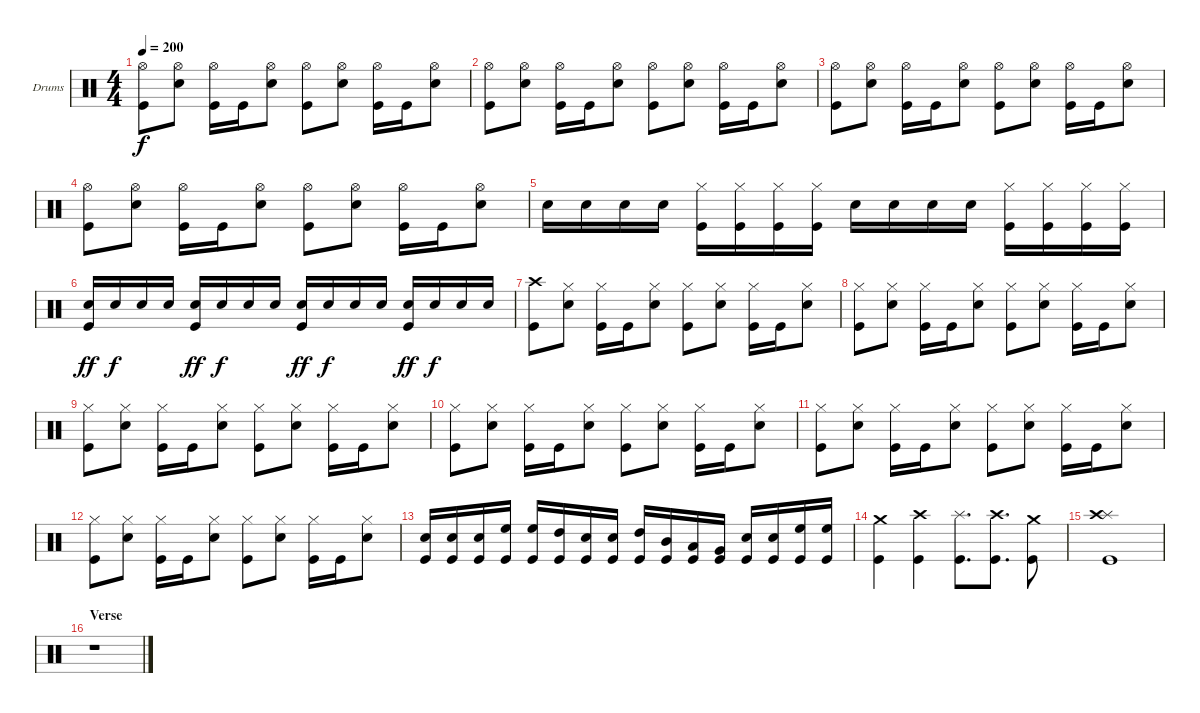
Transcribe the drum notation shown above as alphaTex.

\bracketExtendMode groupsimilarinstruments
\firstSystemTrackNameOrientation horizontal
\otherSystemsTrackNameOrientation horizontal
\track ("Drumkit" "Drums") {instrument percussion}
\staff {score}
\articulation defaults
\ts (4 4)
\tempo 200
\clef neutral
\ks aminor
("Kick (hit)" "Hi-Hat (open)").8{dy f} ("Snare (hit) 2" "Hi-Hat (open)").8 ("Kick (hit)" "Hi-Hat (open)").16 "Kick (hit)".16 ("Snare (hit) 2" "Hi-Hat (open)").8 ("Kick (hit)" "Hi-Hat (open)").8 ("Snare (hit) 2" "Hi-Hat (open)").8 ("Kick (hit)" "Hi-Hat (open)").16 "Kick (hit)".16 ("Snare (hit) 2" "Hi-Hat (open)").8 |
("Kick (hit)" "Hi-Hat (open)").8 ("Snare (hit) 2" "Hi-Hat (open)").8 ("Kick (hit)" "Hi-Hat (open)").16 "Kick (hit)".16 ("Snare (hit) 2" "Hi-Hat (open)").8 ("Kick (hit)" "Hi-Hat (open)").8 ("Snare (hit) 2" "Hi-Hat (open)").8 ("Kick (hit)" "Hi-Hat (open)").16 "Kick (hit)".16 ("Snare (hit) 2" "Hi-Hat (open)").8 |
("Kick (hit)" "Hi-Hat (open)").8 ("Snare (hit) 2" "Hi-Hat (open)").8 ("Kick (hit)" "Hi-Hat (open)").16 "Kick (hit)".16 ("Snare (hit) 2" "Hi-Hat (open)").8 ("Kick (hit)" "Hi-Hat (open)").8 ("Snare (hit) 2" "Hi-Hat (open)").8 ("Kick (hit)" "Hi-Hat (open)").16 "Kick (hit)".16 ("Snare (hit) 2" "Hi-Hat (open)").8 |
("Kick (hit)" "Hi-Hat (open)").8 ("Snare (hit) 2" "Hi-Hat (open)").8 ("Kick (hit)" "Hi-Hat (open)").16 "Kick (hit)".16 ("Snare (hit) 2" "Hi-Hat (open)").8 ("Kick (hit)" "Hi-Hat (open)").8 ("Snare (hit) 2" "Hi-Hat (open)").8 ("Kick (hit)" "Hi-Hat (open)").16 "Kick (hit)".16 ("Snare (hit) 2" "Hi-Hat (open)").8 |
"Snare (hit) 2".16 "Snare (hit) 2".16 "Snare (hit) 2".16 "Snare (hit) 2".16 ("Kick (hit)" "Hi-Hat (closed)").16 ("Kick (hit)" "Hi-Hat (closed)").16 ("Kick (hit)" "Hi-Hat (closed)").16 ("Kick (hit)" "Hi-Hat (closed)").16 "Snare (hit) 2".16 "Snare (hit) 2".16 "Snare (hit) 2".16 "Snare (hit) 2".16 ("Kick (hit)" "Hi-Hat (closed)").16 ("Kick (hit)" "Hi-Hat (closed)").16 ("Kick (hit)" "Hi-Hat (closed)").16 ("Kick (hit)" "Hi-Hat (closed)").16 |
("Kick (hit)" "Snare (hit) 2").16{dy ff} "Snare (hit) 2".16{dy f} "Snare (hit) 2".16 "Snare (hit) 2".16 ("Kick (hit)" "Snare (hit) 2").16{dy ff} "Snare (hit) 2".16{dy f} "Snare (hit) 2".16 "Snare (hit) 2".16 ("Kick (hit)" "Snare (hit) 2").16{dy ff} "Snare (hit) 2".16{dy f} "Snare (hit) 2".16 "Snare (hit) 2".16 ("Kick (hit)" "Snare (hit) 2").16{dy ff} "Snare (hit) 2".16{dy f} "Snare (hit) 2".16 "Snare (hit) 2".16 |
("Kick (hit)" "Crash high (hit)").8 ("Snare (hit) 2" "Hi-Hat (closed)").8 ("Kick (hit)" "Hi-Hat (closed)").16 "Kick (hit)".16 ("Snare (hit) 2" "Hi-Hat (closed)").8 ("Kick (hit)" "Hi-Hat (closed)").8 ("Snare (hit) 2" "Hi-Hat (closed)").8 ("Kick (hit)" "Hi-Hat (closed)").16 "Kick (hit)".16 ("Snare (hit) 2" "Hi-Hat (closed)").8 |
("Kick (hit)" "Hi-Hat (closed)").8 ("Snare (hit) 2" "Hi-Hat (closed)").8 ("Kick (hit)" "Hi-Hat (closed)").16 "Kick (hit)".16 ("Snare (hit) 2" "Hi-Hat (closed)").8 ("Kick (hit)" "Hi-Hat (closed)").8 ("Snare (hit) 2" "Hi-Hat (closed)").8 ("Kick (hit)" "Hi-Hat (closed)").16 "Kick (hit)".16 ("Snare (hit) 2" "Hi-Hat (closed)").8 |
("Kick (hit)" "Hi-Hat (closed)").8 ("Snare (hit) 2" "Hi-Hat (closed)").8 ("Kick (hit)" "Hi-Hat (closed)").16 "Kick (hit)".16 ("Snare (hit) 2" "Hi-Hat (closed)").8 ("Kick (hit)" "Hi-Hat (closed)").8 ("Snare (hit) 2" "Hi-Hat (closed)").8 ("Kick (hit)" "Hi-Hat (closed)").16 "Kick (hit)".16 ("Snare (hit) 2" "Hi-Hat (closed)").8 |
("Kick (hit)" "Hi-Hat (closed)").8 ("Snare (hit) 2" "Hi-Hat (closed)").8 ("Kick (hit)" "Hi-Hat (closed)").16 "Kick (hit)".16 ("Snare (hit) 2" "Hi-Hat (closed)").8 ("Kick (hit)" "Hi-Hat (closed)").8 ("Snare (hit) 2" "Hi-Hat (closed)").8 ("Kick (hit)" "Hi-Hat (closed)").16 "Kick (hit)".16 ("Snare (hit) 2" "Hi-Hat (closed)").8 |
("Kick (hit)" "Hi-Hat (closed)").8 ("Snare (hit) 2" "Hi-Hat (closed)").8 ("Kick (hit)" "Hi-Hat (closed)").16 "Kick (hit)".16 ("Snare (hit) 2" "Hi-Hat (closed)").8 ("Kick (hit)" "Hi-Hat (closed)").8 ("Snare (hit) 2" "Hi-Hat (closed)").8 ("Kick (hit)" "Hi-Hat (closed)").16 "Kick (hit)".16 ("Snare (hit) 2" "Hi-Hat (closed)").8 |
("Kick (hit)" "Hi-Hat (closed)").8 ("Snare (hit) 2" "Hi-Hat (closed)").8 ("Kick (hit)" "Hi-Hat (closed)").16 "Kick (hit)".16 ("Snare (hit) 2" "Hi-Hat (closed)").8 ("Kick (hit)" "Hi-Hat (closed)").8 ("Snare (hit) 2" "Hi-Hat (closed)").8 ("Kick (hit)" "Hi-Hat (closed)").16 "Kick (hit)".16 ("Snare (hit) 2" "Hi-Hat (closed)").8 |
("Kick (hit)" "Snare (hit) 2").16 ("Kick (hit)" "Snare (hit) 2").16 ("Kick (hit)" "Snare (hit) 2").16 ("Kick (hit)" "High Floor Tom (hit)").16 ("Kick (hit)" "High Floor Tom (hit)").16 ("Kick (hit)" "High Tom (hit)").16 ("Kick (hit)" "Snare (hit) 2").16 ("Kick (hit)" "Snare (hit) 2").16 ("Kick (hit)" "High Tom (hit)").16 ("Kick (hit)" "Mid Tom (hit)").16 ("Kick (hit)" "Low Tom (hit)").16 ("Kick (hit)" "Very Low Tom (hit)").16 ("Kick (hit)" "Snare (hit) 2").16 ("Kick (hit)" "Snare (hit) 2").16 ("Kick (hit)" "High Floor Tom (hit)").16 ("Kick (hit)" "High Floor Tom (hit)").16 |
("Kick (hit)" "Crash medium (hit)").4 ("Kick (hit)" "Crash high (hit)").4 ("Kick (hit)" "Splash (hit)").8{d} ("Kick (hit)" "Crash high (hit)").8{d} ("Kick (hit)" "Crash medium (hit)").8 |
("Kick (hit)" "Splash (hit)" "Crash high (hit)").1 |
\section ("" "Verse")
r.1
